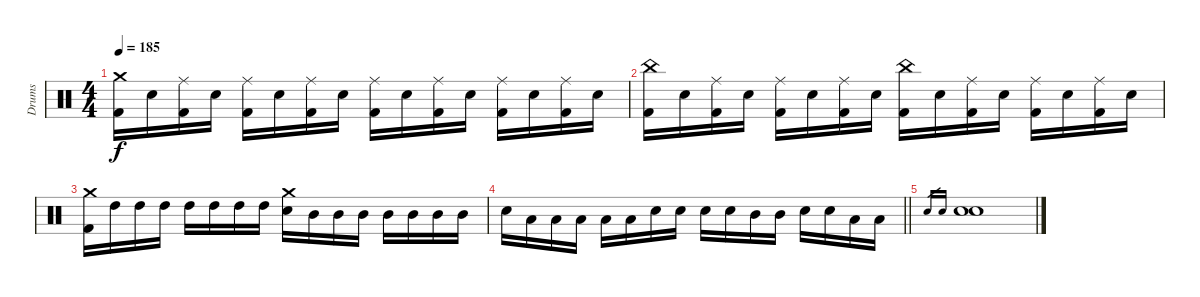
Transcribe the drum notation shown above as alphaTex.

\track ("Drums" "Drums") {instrument percussion}
\staff {score}
\articulation defaults
\ts (4 4)
\tempo 185
\clef neutral
\ks c
("Crash medium (hit)" "Kick (hit) 2").16{dy f} "Electric Snare (hit)".16 ("Ride (middle)" "Kick (hit) 2").16 "Electric Snare (hit)".16 ("Ride (middle)" "Kick (hit) 2").16 "Electric Snare (hit)".16 ("Ride (middle)" "Kick (hit) 2").16 "Electric Snare (hit)".16 ("Ride (middle)" "Kick (hit) 2").16 "Electric Snare (hit)".16 ("Ride (middle)" "Kick (hit) 2").16 "Electric Snare (hit)".16 ("Ride (middle)" "Kick (hit) 2").16 "Electric Snare (hit)".16 ("Ride (middle)" "Kick (hit) 2").16 "Electric Snare (hit)".16 |
("China (hit)" "Kick (hit) 2").16 "Electric Snare (hit)".16 ("Ride (middle)" "Kick (hit) 2").16 "Electric Snare (hit)".16 ("Ride (middle)" "Kick (hit) 2").16 "Electric Snare (hit)".16 ("Ride (middle)" "Kick (hit) 2").16 "Electric Snare (hit)".16 ("China (hit)" "Kick (hit) 2").16 "Electric Snare (hit)".16 ("Ride (middle)" "Kick (hit) 2").16 "Electric Snare (hit)".16 ("Ride (middle)" "Kick (hit) 2").16 "Electric Snare (hit)".16 ("Ride (middle)" "Kick (hit) 2").16 "Electric Snare (hit)".16 |
("Crash medium (hit)" "Kick (hit) 2").16 "High Tom (hit)".16 "High Tom (hit)".16 "High Tom (hit)".16 "High Tom (hit)".16 "High Tom (hit)".16 "High Tom (hit)".16 "High Tom (hit)".16 ("Crash medium (hit)" "Electric Snare (hit)").16 "Mid Tom (hit)".16 "Mid Tom (hit)".16 "Mid Tom (hit)".16 "Mid Tom (hit)".16 "Mid Tom (hit)".16 "Mid Tom (hit)".16 "Mid Tom (hit)".16 |
\barLineRight lightlight "Electric Snare (hit)".16 "Low Tom (hit)".16 "Low Tom (hit)".16 "Low Tom (hit)".16 "Low Tom (hit)".16 "Low Tom (hit)".16 "Electric Snare (hit)".16 "Electric Snare (hit)".16 "Electric Snare (hit)".16 "Electric Snare (hit)".16 "Mid Tom (hit)".16 "Mid Tom (hit)".16 "Electric Snare (hit)".16 "Electric Snare (hit)".16 "Low Tom (hit)".16 "Low Tom (hit)".16
|
"Snare (hit) 2".16{gr} "Electric Snare (hit)".16{gr} ("Snare (hit) 2" "Electric Snare (hit)").1
